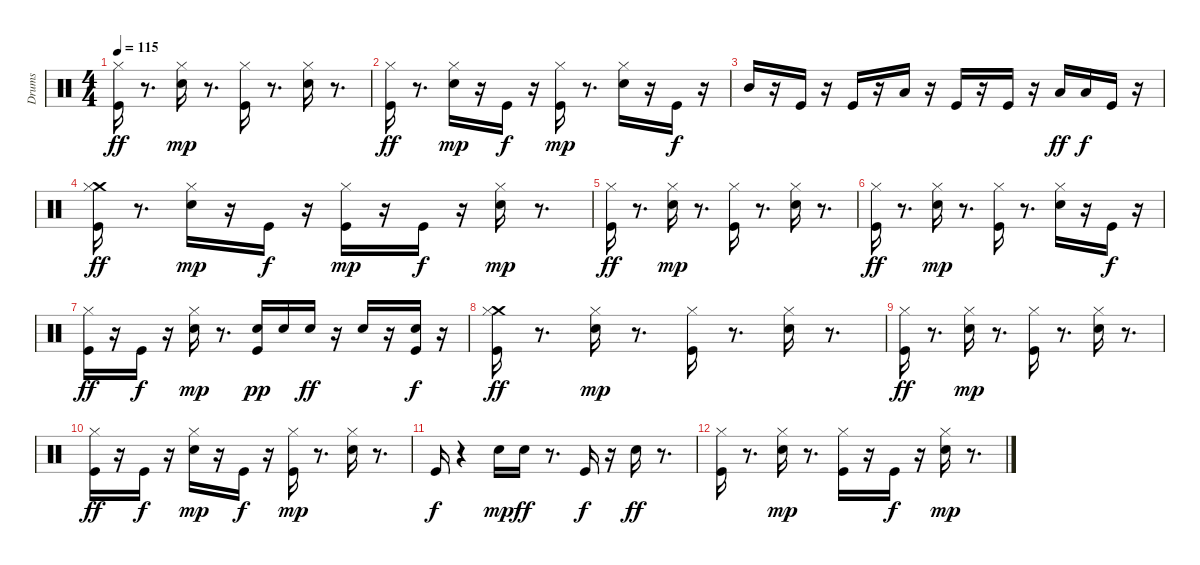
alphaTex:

\track ("Drums" "Drums") {instrument percussion}
\staff {score}
\articulation defaults
\ts (4 4)
\tempo 115
\clef neutral
\ks c
("Kick (hit)" "Hi-Hat (closed)").16{dy ff} r.8{d} ("Electric Snare (hit)" "Hi-Hat (closed)").16{dy mp} r.8{d} ("Kick (hit)" "Hi-Hat (closed)").16 r.8{d} ("Electric Snare (hit)" "Hi-Hat (closed)").16 r.8{d} |
("Kick (hit)" "Hi-Hat (closed)").16{dy ff} r.8{d} ("Electric Snare (hit)" "Hi-Hat (closed)").16{dy mp} r.16 "Kick (hit)".16{dy f} r.16 ("Kick (hit)" "Hi-Hat (closed)").16{dy mp} r.8{d} ("Electric Snare (hit)" "Hi-Hat (closed)").16 r.16 "Kick (hit)".16{dy f} r.16 |
"Mid Tom (hit)".16 r.16 "Kick (hit)".16 r.16 "Kick (hit)".16 r.16 "Low Tom (hit)".16 r.16 "Kick (hit)".16 r.16 "Kick (hit)".16 r.16 "Low Tom (hit)".16{dy ff} "Low Floor Tom (hit)".16{dy f} "Kick (hit)".16 r.16 |
("Crash medium (hit)" "Kick (hit)" "Hi-Hat (closed)").16{dy ff} r.8{d} ("Electric Snare (hit)" "Hi-Hat (closed)").16{dy mp} r.16 "Kick (hit)".16{dy f} r.16 ("Kick (hit)" "Hi-Hat (closed)").16{dy mp} r.16 "Kick (hit)".16{dy f} r.16 ("Electric Snare (hit)" "Hi-Hat (closed)").16{dy mp} r.8{d} |
("Kick (hit)" "Hi-Hat (closed)").16{dy ff} r.8{d} ("Electric Snare (hit)" "Hi-Hat (closed)").16{dy mp} r.8{d} ("Kick (hit)" "Hi-Hat (closed)").16 r.8{d} ("Electric Snare (hit)" "Hi-Hat (closed)").16 r.8{d} |
("Kick (hit)" "Hi-Hat (closed)").16{dy ff} r.8{d} ("Electric Snare (hit)" "Hi-Hat (closed)").16{dy mp} r.8{d} ("Kick (hit)" "Hi-Hat (closed)").16 r.8{d} ("Electric Snare (hit)" "Hi-Hat (closed)").16 r.16 "Kick (hit)".16{dy f} r.16 |
("Kick (hit)" "Hi-Hat (closed)").16{dy ff} r.16 "Kick (hit)".16{dy f} r.16 ("Electric Snare (hit)" "Hi-Hat (closed)").16{dy mp} r.8{d} ("Kick (hit)" "Electric Snare (hit)").16{dy pp} "Electric Snare (hit)".16 "Electric Snare (hit)".16{dy ff} r.16 "Electric Snare (hit)".16 r.16 ("Kick (hit)" "Electric Snare (hit)").16{dy f} r.16 |
("Crash medium (hit)" "Kick (hit)" "Hi-Hat (closed)").16{dy ff} r.8{d} ("Electric Snare (hit)" "Hi-Hat (closed)").16{dy mp} r.8{d} ("Kick (hit)" "Hi-Hat (closed)").16 r.8{d} ("Electric Snare (hit)" "Hi-Hat (closed)").16 r.8{d} |
("Kick (hit)" "Hi-Hat (closed)").16{dy ff} r.8{d} ("Electric Snare (hit)" "Hi-Hat (closed)").16{dy mp} r.8{d} ("Kick (hit)" "Hi-Hat (closed)").16 r.8{d} ("Electric Snare (hit)" "Hi-Hat (closed)").16 r.8{d} |
("Kick (hit)" "Hi-Hat (closed)").16{dy ff} r.16 "Kick (hit)".16{dy f} r.16 ("Electric Snare (hit)" "Hi-Hat (closed)").16{dy mp} r.16 "Kick (hit)".16{dy f} r.16 ("Kick (hit)" "Hi-Hat (closed)").16{dy mp} r.8{d} ("Electric Snare (hit)" "Hi-Hat (closed)").16 r.8{d} |
"Kick (hit)".16{dy f} r.4 "Electric Snare (hit)".16{dy mp} "Electric Snare (hit)".16{dy ff} r.8{d} "Kick (hit)".16{dy f} r.16 "Electric Snare (hit)".16{dy ff} r.8{d} |
("Kick (hit)" "Hi-Hat (closed)").16 r.8{d} ("Electric Snare (hit)" "Hi-Hat (closed)").16{dy mp} r.8{d} ("Kick (hit)" "Hi-Hat (closed)").16 r.16 "Kick (hit)".16{dy f} r.16 ("Electric Snare (hit)" "Hi-Hat (closed)").16{dy mp} r.8{d}
